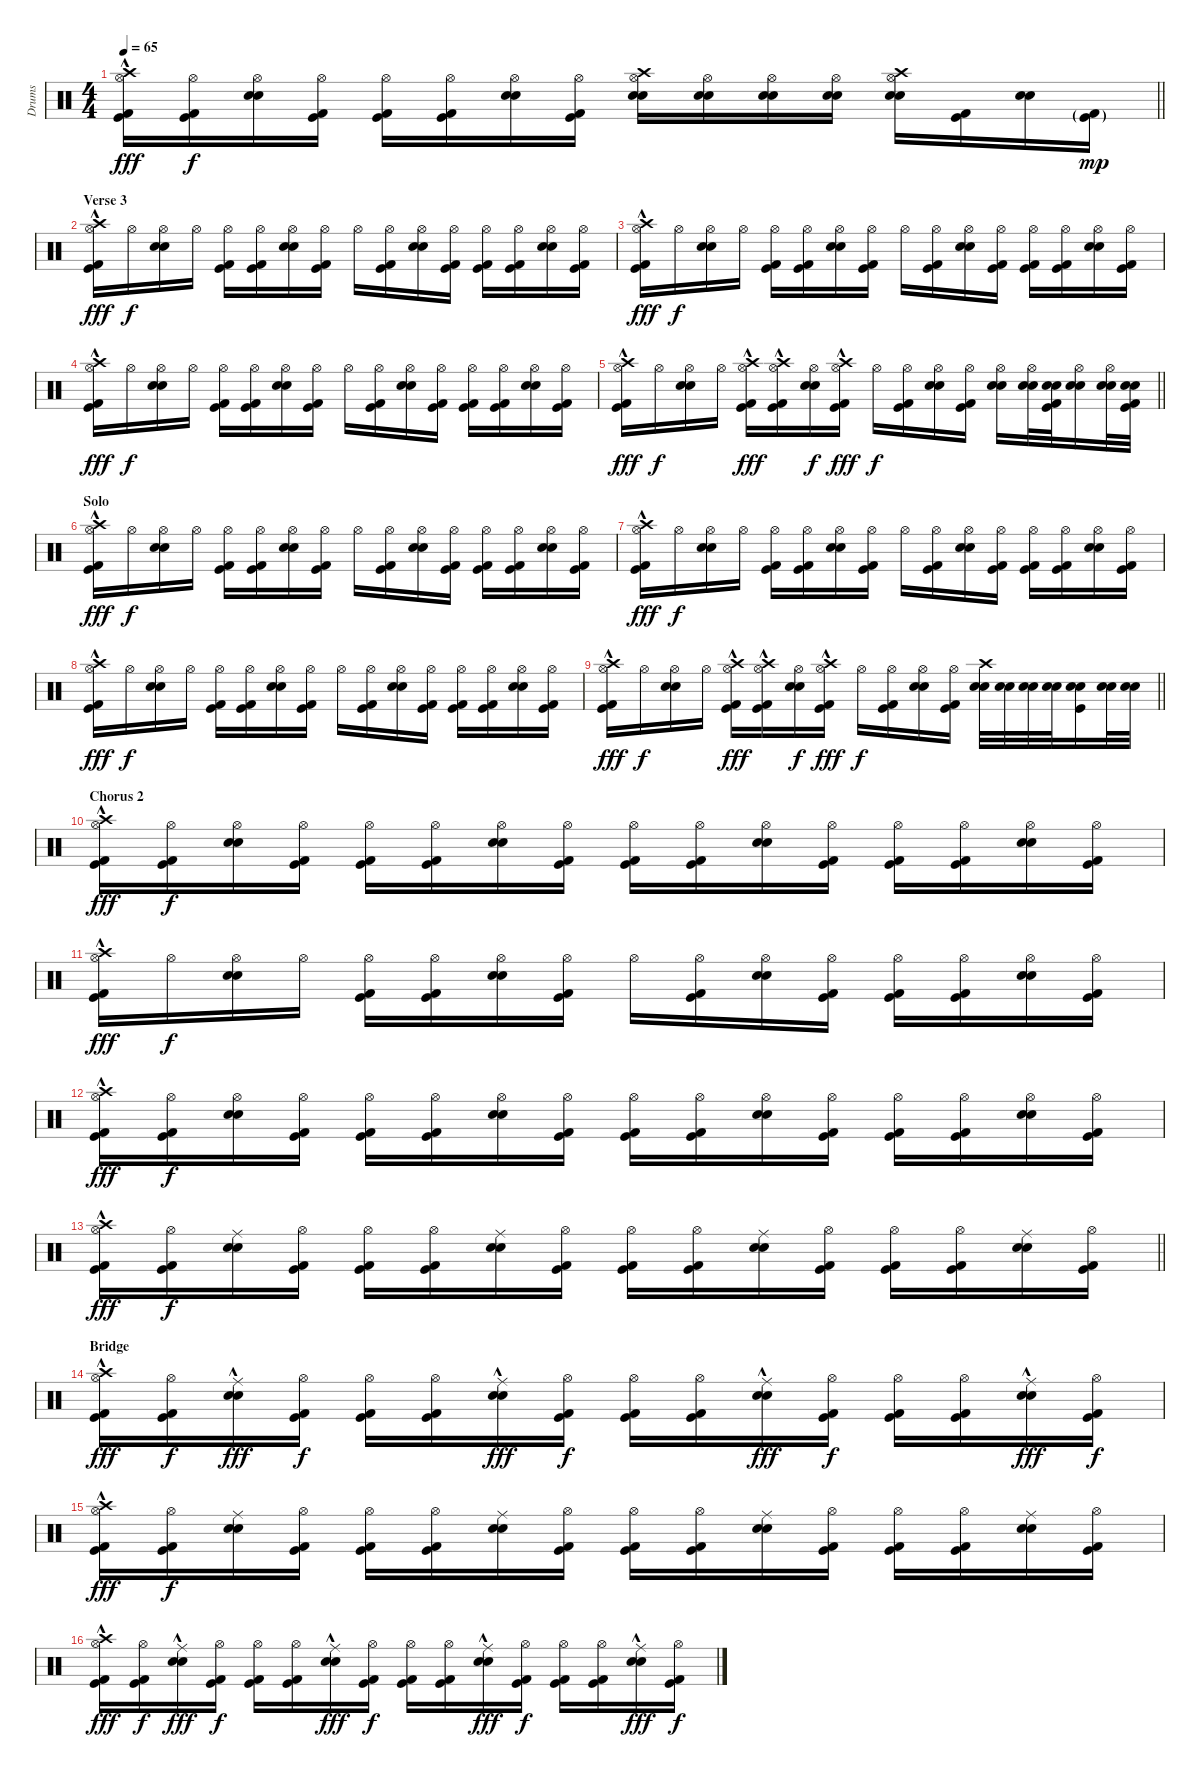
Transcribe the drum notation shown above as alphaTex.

\track ("Drums" "Drums") {instrument percussion}
\staff {score}
\articulation defaults
\ts (4 4)
\tempo 65
\clef neutral
\barLineRight lightlight
\ks c
("Crash high (hit)"{hac} "Hi-Hat (open)" "Kick (hit) 2" "Kick (hit)").16{dy fff} ("Hi-Hat (open)" "Kick (hit) 2" "Kick (hit)").16{dy f} ("Hi-Hat (open)" "Electric Snare (hit)" "Snare (hit) 2").16 ("Hi-Hat (open)" "Kick (hit) 2" "Kick (hit)").16 ("Hi-Hat (open)" "Kick (hit) 2" "Kick (hit)").16 ("Hi-Hat (open)" "Kick (hit) 2" "Kick (hit)").16 ("Hi-Hat (open)" "Electric Snare (hit)" "Snare (hit) 2").16 ("Hi-Hat (open)" "Kick (hit) 2" "Kick (hit)").16 ("Crash high (hit)" "Hi-Hat (open)" "Electric Snare (hit)" "Snare (hit) 2").16 ("Hi-Hat (open)" "Electric Snare (hit)" "Snare (hit) 2").16 ("Hi-Hat (open)" "Electric Snare (hit)" "Snare (hit) 2").16 ("Hi-Hat (open)" "Electric Snare (hit)" "Snare (hit) 2").16 ("Crash high (hit)" "Hi-Hat (open)" "Electric Snare (hit)" "Snare (hit) 2").16 ("Kick (hit) 2" "Kick (hit)").16 ("Electric Snare (hit)" "Snare (hit) 2").16 ("Kick (hit) 2"{g} "Kick (hit)"{g}).16{dy mp} |
\section ("" "Verse 3")
("Crash high (hit)"{hac} "Hi-Hat (open)" "Kick (hit) 2" "Kick (hit)").16{dy fff} "Hi-Hat (open)".16{dy f} ("Hi-Hat (open)" "Electric Snare (hit)" "Snare (hit) 2").16 "Hi-Hat (open)".16 ("Hi-Hat (open)" "Kick (hit) 2" "Kick (hit)").16 ("Hi-Hat (open)" "Kick (hit) 2" "Kick (hit)").16 ("Hi-Hat (open)" "Electric Snare (hit)" "Snare (hit) 2").16 ("Hi-Hat (open)" "Kick (hit) 2" "Kick (hit)").16 "Hi-Hat (open)".16 ("Hi-Hat (open)" "Kick (hit) 2" "Kick (hit)").16 ("Hi-Hat (open)" "Electric Snare (hit)" "Snare (hit) 2").16 ("Hi-Hat (open)" "Kick (hit) 2" "Kick (hit)").16 ("Hi-Hat (open)" "Kick (hit) 2" "Kick (hit)").16 ("Hi-Hat (open)" "Kick (hit) 2" "Kick (hit)").16 ("Hi-Hat (open)" "Electric Snare (hit)" "Snare (hit) 2").16 ("Hi-Hat (open)" "Kick (hit) 2" "Kick (hit)").16 |
("Crash high (hit)"{hac} "Hi-Hat (open)" "Kick (hit) 2" "Kick (hit)").16{dy fff} "Hi-Hat (open)".16{dy f} ("Hi-Hat (open)" "Electric Snare (hit)" "Snare (hit) 2").16 "Hi-Hat (open)".16 ("Hi-Hat (open)" "Kick (hit) 2" "Kick (hit)").16 ("Hi-Hat (open)" "Kick (hit) 2" "Kick (hit)").16 ("Hi-Hat (open)" "Electric Snare (hit)" "Snare (hit) 2").16 ("Hi-Hat (open)" "Kick (hit) 2" "Kick (hit)").16 "Hi-Hat (open)".16 ("Hi-Hat (open)" "Kick (hit) 2" "Kick (hit)").16 ("Hi-Hat (open)" "Electric Snare (hit)" "Snare (hit) 2").16 ("Hi-Hat (open)" "Kick (hit) 2" "Kick (hit)").16 ("Hi-Hat (open)" "Kick (hit) 2" "Kick (hit)").16 ("Hi-Hat (open)" "Kick (hit) 2" "Kick (hit)").16 ("Hi-Hat (open)" "Electric Snare (hit)" "Snare (hit) 2").16 ("Hi-Hat (open)" "Kick (hit) 2" "Kick (hit)").16 |
("Crash high (hit)"{hac} "Hi-Hat (open)" "Kick (hit) 2" "Kick (hit)").16{dy fff} "Hi-Hat (open)".16{dy f} ("Hi-Hat (open)" "Electric Snare (hit)" "Snare (hit) 2").16 "Hi-Hat (open)".16 ("Hi-Hat (open)" "Kick (hit) 2" "Kick (hit)").16 ("Hi-Hat (open)" "Kick (hit) 2" "Kick (hit)").16 ("Hi-Hat (open)" "Electric Snare (hit)" "Snare (hit) 2").16 ("Hi-Hat (open)" "Kick (hit) 2" "Kick (hit)").16 "Hi-Hat (open)".16 ("Hi-Hat (open)" "Kick (hit) 2" "Kick (hit)").16 ("Hi-Hat (open)" "Electric Snare (hit)" "Snare (hit) 2").16 ("Hi-Hat (open)" "Kick (hit) 2" "Kick (hit)").16 ("Hi-Hat (open)" "Kick (hit) 2" "Kick (hit)").16 ("Hi-Hat (open)" "Kick (hit) 2" "Kick (hit)").16 ("Hi-Hat (open)" "Electric Snare (hit)" "Snare (hit) 2").16 ("Hi-Hat (open)" "Kick (hit) 2" "Kick (hit)").16 |
\barLineRight lightlight
("Crash high (hit)"{hac} "Hi-Hat (open)" "Kick (hit) 2" "Kick (hit)").16{dy fff} "Hi-Hat (open)".16{dy f} ("Hi-Hat (open)" "Electric Snare (hit)" "Snare (hit) 2").16 "Hi-Hat (open)".16 ("Crash high (hit)"{hac} "Hi-Hat (open)" "Kick (hit) 2" "Kick (hit)").16{dy fff} ("Crash high (hit)"{hac} "Hi-Hat (open)" "Kick (hit) 2" "Kick (hit)").16 ("Hi-Hat (open)" "Electric Snare (hit)" "Snare (hit) 2").16{dy f} ("Crash high (hit)"{hac} "Hi-Hat (open)" "Kick (hit) 2" "Kick (hit)").16{dy fff} "Hi-Hat (open)".16{dy f} ("Hi-Hat (open)" "Kick (hit) 2" "Kick (hit)").16 ("Hi-Hat (open)" "Electric Snare (hit)" "Snare (hit) 2").16 ("Hi-Hat (open)" "Kick (hit) 2" "Kick (hit)").16 ("Hi-Hat (open)" "Electric Snare (hit)" "Snare (hit) 2").16 ("Hi-Hat (open)" "Electric Snare (hit)" "Snare (hit) 2").32 ("Electric Snare (hit)" "Snare (hit) 2" "Kick (hit) 2" "Kick (hit)").32 ("Hi-Hat (open)" "Electric Snare (hit)" "Snare (hit) 2").16 ("Hi-Hat (open)" "Electric Snare (hit)" "Snare (hit) 2").32 ("Electric Snare (hit)" "Snare (hit) 2" "Kick (hit) 2" "Kick (hit)").32 |
\section ("" "Solo")
("Crash high (hit)"{hac} "Hi-Hat (open)" "Kick (hit) 2" "Kick (hit)").16{dy fff} "Hi-Hat (open)".16{dy f} ("Hi-Hat (open)" "Electric Snare (hit)" "Snare (hit) 2").16 "Hi-Hat (open)".16 ("Hi-Hat (open)" "Kick (hit) 2" "Kick (hit)").16 ("Hi-Hat (open)" "Kick (hit) 2" "Kick (hit)").16 ("Hi-Hat (open)" "Electric Snare (hit)" "Snare (hit) 2").16 ("Hi-Hat (open)" "Kick (hit) 2" "Kick (hit)").16 "Hi-Hat (open)".16 ("Hi-Hat (open)" "Kick (hit) 2" "Kick (hit)").16 ("Hi-Hat (open)" "Electric Snare (hit)" "Snare (hit) 2").16 ("Hi-Hat (open)" "Kick (hit) 2" "Kick (hit)").16 ("Hi-Hat (open)" "Kick (hit) 2" "Kick (hit)").16 ("Hi-Hat (open)" "Kick (hit) 2" "Kick (hit)").16 ("Hi-Hat (open)" "Electric Snare (hit)" "Snare (hit) 2").16 ("Hi-Hat (open)" "Kick (hit) 2" "Kick (hit)").16 |
("Crash high (hit)"{hac} "Hi-Hat (open)" "Kick (hit) 2" "Kick (hit)").16{dy fff} "Hi-Hat (open)".16{dy f} ("Hi-Hat (open)" "Electric Snare (hit)" "Snare (hit) 2").16 "Hi-Hat (open)".16 ("Hi-Hat (open)" "Kick (hit) 2" "Kick (hit)").16 ("Hi-Hat (open)" "Kick (hit) 2" "Kick (hit)").16 ("Hi-Hat (open)" "Electric Snare (hit)" "Snare (hit) 2").16 ("Hi-Hat (open)" "Kick (hit) 2" "Kick (hit)").16 "Hi-Hat (open)".16 ("Hi-Hat (open)" "Kick (hit) 2" "Kick (hit)").16 ("Hi-Hat (open)" "Electric Snare (hit)" "Snare (hit) 2").16 ("Hi-Hat (open)" "Kick (hit) 2" "Kick (hit)").16 ("Hi-Hat (open)" "Kick (hit) 2" "Kick (hit)").16 ("Hi-Hat (open)" "Kick (hit) 2" "Kick (hit)").16 ("Hi-Hat (open)" "Electric Snare (hit)" "Snare (hit) 2").16 ("Hi-Hat (open)" "Kick (hit) 2" "Kick (hit)").16 |
("Crash high (hit)"{hac} "Hi-Hat (open)" "Kick (hit) 2" "Kick (hit)").16{dy fff} "Hi-Hat (open)".16{dy f} ("Hi-Hat (open)" "Electric Snare (hit)" "Snare (hit) 2").16 "Hi-Hat (open)".16 ("Hi-Hat (open)" "Kick (hit) 2" "Kick (hit)").16 ("Hi-Hat (open)" "Kick (hit) 2" "Kick (hit)").16 ("Hi-Hat (open)" "Electric Snare (hit)" "Snare (hit) 2").16 ("Hi-Hat (open)" "Kick (hit) 2" "Kick (hit)").16 "Hi-Hat (open)".16 ("Hi-Hat (open)" "Kick (hit) 2" "Kick (hit)").16 ("Hi-Hat (open)" "Electric Snare (hit)" "Snare (hit) 2").16 ("Hi-Hat (open)" "Kick (hit) 2" "Kick (hit)").16 ("Hi-Hat (open)" "Kick (hit) 2" "Kick (hit)").16 ("Hi-Hat (open)" "Kick (hit) 2" "Kick (hit)").16 ("Hi-Hat (open)" "Electric Snare (hit)" "Snare (hit) 2").16 ("Hi-Hat (open)" "Kick (hit) 2" "Kick (hit)").16 |
\barLineRight lightlight
("Crash high (hit)"{hac} "Hi-Hat (open)" "Kick (hit) 2" "Kick (hit)").16{dy fff} "Hi-Hat (open)".16{dy f} ("Hi-Hat (open)" "Electric Snare (hit)" "Snare (hit) 2").16 "Hi-Hat (open)".16 ("Crash high (hit)"{hac} "Hi-Hat (open)" "Kick (hit) 2" "Kick (hit)").16{dy fff} ("Crash high (hit)"{hac} "Hi-Hat (open)" "Kick (hit) 2" "Kick (hit)").16 ("Hi-Hat (open)" "Electric Snare (hit)" "Snare (hit) 2").16{dy f} ("Crash high (hit)"{hac} "Hi-Hat (open)" "Kick (hit) 2" "Kick (hit)").16{dy fff} "Hi-Hat (open)".16{dy f} ("Hi-Hat (open)" "Kick (hit) 2" "Kick (hit)").16 ("Hi-Hat (open)" "Electric Snare (hit)" "Snare (hit) 2").16 ("Hi-Hat (open)" "Kick (hit) 2" "Kick (hit)").16 ("Crash high (hit)" "Electric Snare (hit)" "Snare (hit) 2").32 ("Electric Snare (hit)" "Snare (hit) 2").32 ("Electric Snare (hit)" "Snare (hit) 2").32 ("Electric Snare (hit)" "Snare (hit) 2").32 ("Electric Snare (hit)" "Snare (hit) 2" "Kick (hit)").16 ("Electric Snare (hit)" "Snare (hit) 2").32 ("Electric Snare (hit)" "Snare (hit) 2").32 |
\section ("" "Chorus 2")
("Crash high (hit)"{hac} "Hi-Hat (open)" "Kick (hit) 2" "Kick (hit)").16{dy fff} ("Hi-Hat (open)" "Kick (hit) 2" "Kick (hit)").16{dy f} ("Hi-Hat (open)" "Electric Snare (hit)" "Snare (hit) 2").16 ("Hi-Hat (open)" "Kick (hit) 2" "Kick (hit)").16 ("Hi-Hat (open)" "Kick (hit) 2" "Kick (hit)").16 ("Hi-Hat (open)" "Kick (hit) 2" "Kick (hit)").16 ("Hi-Hat (open)" "Electric Snare (hit)" "Snare (hit) 2").16 ("Hi-Hat (open)" "Kick (hit) 2" "Kick (hit)").16 ("Hi-Hat (open)" "Kick (hit) 2" "Kick (hit)").16 ("Hi-Hat (open)" "Kick (hit) 2" "Kick (hit)").16 ("Hi-Hat (open)" "Electric Snare (hit)" "Snare (hit) 2").16 ("Hi-Hat (open)" "Kick (hit) 2" "Kick (hit)").16 ("Hi-Hat (open)" "Kick (hit) 2" "Kick (hit)").16 ("Hi-Hat (open)" "Kick (hit) 2" "Kick (hit)").16 ("Hi-Hat (open)" "Electric Snare (hit)" "Snare (hit) 2").16 ("Hi-Hat (open)" "Kick (hit) 2" "Kick (hit)").16 |
("Crash high (hit)"{hac} "Hi-Hat (open)" "Kick (hit) 2" "Kick (hit)").16{dy fff} "Hi-Hat (open)".16{dy f} ("Hi-Hat (open)" "Electric Snare (hit)" "Snare (hit) 2").16 "Hi-Hat (open)".16 ("Hi-Hat (open)" "Kick (hit) 2" "Kick (hit)").16 ("Hi-Hat (open)" "Kick (hit) 2" "Kick (hit)").16 ("Hi-Hat (open)" "Electric Snare (hit)" "Snare (hit) 2").16 ("Hi-Hat (open)" "Kick (hit) 2" "Kick (hit)").16 "Hi-Hat (open)".16 ("Hi-Hat (open)" "Kick (hit) 2" "Kick (hit)").16 ("Hi-Hat (open)" "Electric Snare (hit)" "Snare (hit) 2").16 ("Hi-Hat (open)" "Kick (hit) 2" "Kick (hit)").16 ("Hi-Hat (open)" "Kick (hit) 2" "Kick (hit)").16 ("Hi-Hat (open)" "Kick (hit) 2" "Kick (hit)").16 ("Hi-Hat (open)" "Electric Snare (hit)" "Snare (hit) 2").16 ("Hi-Hat (open)" "Kick (hit) 2" "Kick (hit)").16 |
("Crash high (hit)"{hac} "Hi-Hat (open)" "Kick (hit) 2" "Kick (hit)").16{dy fff} ("Hi-Hat (open)" "Kick (hit) 2" "Kick (hit)").16{dy f} ("Hi-Hat (open)" "Electric Snare (hit)" "Snare (hit) 2").16 ("Hi-Hat (open)" "Kick (hit) 2" "Kick (hit)").16 ("Hi-Hat (open)" "Kick (hit) 2" "Kick (hit)").16 ("Hi-Hat (open)" "Kick (hit) 2" "Kick (hit)").16 ("Hi-Hat (open)" "Electric Snare (hit)" "Snare (hit) 2").16 ("Hi-Hat (open)" "Kick (hit) 2" "Kick (hit)").16 ("Hi-Hat (open)" "Kick (hit) 2" "Kick (hit)").16 ("Hi-Hat (open)" "Kick (hit) 2" "Kick (hit)").16 ("Hi-Hat (open)" "Electric Snare (hit)" "Snare (hit) 2").16 ("Hi-Hat (open)" "Kick (hit) 2" "Kick (hit)").16 ("Hi-Hat (open)" "Kick (hit) 2" "Kick (hit)").16 ("Hi-Hat (open)" "Kick (hit) 2" "Kick (hit)").16 ("Hi-Hat (open)" "Electric Snare (hit)" "Snare (hit) 2").16 ("Hi-Hat (open)" "Kick (hit) 2" "Kick (hit)").16 |
\barLineRight lightlight
("Crash high (hit)"{hac} "Hi-Hat (open)" "Kick (hit) 2" "Kick (hit)").16{dy fff} ("Hi-Hat (open)" "Kick (hit) 2" "Kick (hit)").16{dy f} ("Ride (middle)" "Electric Snare (hit)" "Snare (hit) 2").16 ("Hi-Hat (open)" "Kick (hit) 2" "Kick (hit)").16 ("Hi-Hat (open)" "Kick (hit) 2" "Kick (hit)").16 ("Hi-Hat (open)" "Kick (hit) 2" "Kick (hit)").16 ("Ride (middle)" "Electric Snare (hit)" "Snare (hit) 2").16 ("Hi-Hat (open)" "Kick (hit) 2" "Kick (hit)").16 ("Hi-Hat (open)" "Kick (hit) 2" "Kick (hit)").16 ("Hi-Hat (open)" "Kick (hit) 2" "Kick (hit)").16 ("Ride (middle)" "Electric Snare (hit)" "Snare (hit) 2").16 ("Hi-Hat (open)" "Kick (hit) 2" "Kick (hit)").16 ("Hi-Hat (open)" "Kick (hit) 2" "Kick (hit)").16 ("Hi-Hat (open)" "Kick (hit) 2" "Kick (hit)").16 ("Ride (middle)" "Electric Snare (hit)" "Snare (hit) 2").16 ("Hi-Hat (open)" "Kick (hit) 2" "Kick (hit)").16 |
\section ("" "Bridge")
("Crash high (hit)"{hac} "Hi-Hat (open)" "Kick (hit) 2" "Kick (hit)").16{dy fff} ("Hi-Hat (open)" "Kick (hit) 2" "Kick (hit)").16{dy f} ("Ride (middle)"{hac} "Electric Snare (hit)" "Snare (hit) 2").16{dy fff} ("Hi-Hat (open)" "Kick (hit) 2" "Kick (hit)").16{dy f} ("Hi-Hat (open)" "Kick (hit) 2" "Kick (hit)").16 ("Hi-Hat (open)" "Kick (hit) 2" "Kick (hit)").16 ("Ride (middle)"{hac} "Electric Snare (hit)" "Snare (hit) 2").16{dy fff} ("Hi-Hat (open)" "Kick (hit) 2" "Kick (hit)").16{dy f} ("Hi-Hat (open)" "Kick (hit) 2" "Kick (hit)").16 ("Hi-Hat (open)" "Kick (hit) 2" "Kick (hit)").16 ("Ride (middle)"{hac} "Electric Snare (hit)" "Snare (hit) 2").16{dy fff} ("Hi-Hat (open)" "Kick (hit) 2" "Kick (hit)").16{dy f} ("Hi-Hat (open)" "Kick (hit) 2" "Kick (hit)").16 ("Hi-Hat (open)" "Kick (hit) 2" "Kick (hit)").16 ("Ride (middle)"{hac} "Electric Snare (hit)" "Snare (hit) 2").16{dy fff} ("Hi-Hat (open)" "Kick (hit) 2" "Kick (hit)").16{dy f} |
("Crash high (hit)"{hac} "Hi-Hat (open)" "Kick (hit) 2" "Kick (hit)").16{dy fff} ("Hi-Hat (open)" "Kick (hit) 2" "Kick (hit)").16{dy f} ("Ride (middle)" "Electric Snare (hit)" "Snare (hit) 2").16 ("Hi-Hat (open)" "Kick (hit) 2" "Kick (hit)").16 ("Hi-Hat (open)" "Kick (hit) 2" "Kick (hit)").16 ("Hi-Hat (open)" "Kick (hit) 2" "Kick (hit)").16 ("Ride (middle)" "Electric Snare (hit)" "Snare (hit) 2").16 ("Hi-Hat (open)" "Kick (hit) 2" "Kick (hit)").16 ("Hi-Hat (open)" "Kick (hit) 2" "Kick (hit)").16 ("Hi-Hat (open)" "Kick (hit) 2" "Kick (hit)").16 ("Ride (middle)" "Electric Snare (hit)" "Snare (hit) 2").16 ("Hi-Hat (open)" "Kick (hit) 2" "Kick (hit)").16 ("Hi-Hat (open)" "Kick (hit) 2" "Kick (hit)").16 ("Hi-Hat (open)" "Kick (hit) 2" "Kick (hit)").16 ("Ride (middle)" "Electric Snare (hit)" "Snare (hit) 2").16 ("Hi-Hat (open)" "Kick (hit) 2" "Kick (hit)").16 |
("Crash high (hit)"{hac} "Hi-Hat (open)" "Kick (hit) 2" "Kick (hit)").16{dy fff} ("Hi-Hat (open)" "Kick (hit) 2" "Kick (hit)").16{dy f} ("Ride (middle)"{hac} "Electric Snare (hit)" "Snare (hit) 2").16{dy fff} ("Hi-Hat (open)" "Kick (hit) 2" "Kick (hit)").16{dy f} ("Hi-Hat (open)" "Kick (hit) 2" "Kick (hit)").16 ("Hi-Hat (open)" "Kick (hit) 2" "Kick (hit)").16 ("Ride (middle)"{hac} "Electric Snare (hit)" "Snare (hit) 2").16{dy fff} ("Hi-Hat (open)" "Kick (hit) 2" "Kick (hit)").16{dy f} ("Hi-Hat (open)" "Kick (hit) 2" "Kick (hit)").16 ("Hi-Hat (open)" "Kick (hit) 2" "Kick (hit)").16 ("Ride (middle)"{hac} "Electric Snare (hit)" "Snare (hit) 2").16{dy fff} ("Hi-Hat (open)" "Kick (hit) 2" "Kick (hit)").16{dy f} ("Hi-Hat (open)" "Kick (hit) 2" "Kick (hit)").16 ("Hi-Hat (open)" "Kick (hit) 2" "Kick (hit)").16 ("Ride (middle)"{hac} "Electric Snare (hit)" "Snare (hit) 2").16{dy fff} ("Hi-Hat (open)" "Kick (hit) 2" "Kick (hit)").16{dy f}
